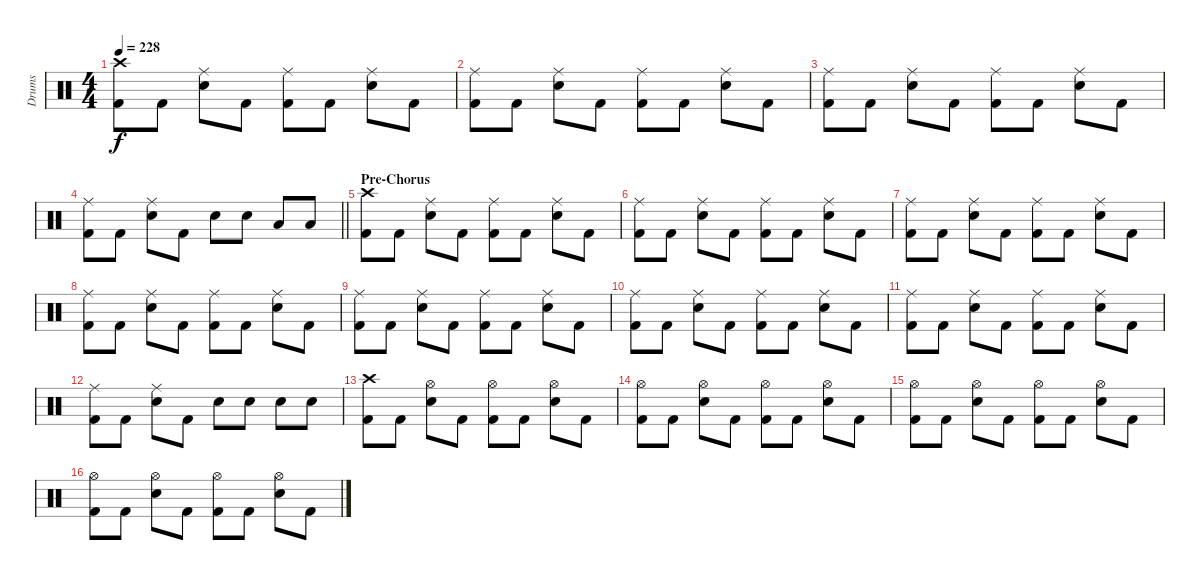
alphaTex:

\track ("Drums" "Drums") {instrument percussion}
\staff {score}
\articulation defaults
\ts (4 4)
\tempo 228
\clef neutral
\ks c
("Crash high (hit)" "Kick (hit) 2").8{dy f} "Kick (hit) 2".8 ("Ride (middle)" "Snare (hit) 2").8 "Kick (hit) 2".8 ("Ride (middle)" "Kick (hit) 2").8 "Kick (hit) 2".8 ("Ride (middle)" "Snare (hit) 2").8 "Kick (hit) 2".8 |
("Ride (middle)" "Kick (hit) 2").8 "Kick (hit) 2".8 ("Ride (middle)" "Snare (hit) 2").8 "Kick (hit) 2".8 ("Ride (middle)" "Kick (hit) 2").8 "Kick (hit) 2".8 ("Ride (middle)" "Snare (hit) 2").8 "Kick (hit) 2".8 |
("Ride (middle)" "Kick (hit) 2").8 "Kick (hit) 2".8 ("Ride (middle)" "Snare (hit) 2").8 "Kick (hit) 2".8 ("Ride (middle)" "Kick (hit) 2").8 "Kick (hit) 2".8 ("Ride (middle)" "Snare (hit) 2").8 "Kick (hit) 2".8 |
\barLineRight lightlight
("Ride (middle)" "Kick (hit) 2").8 "Kick (hit) 2".8 ("Ride (middle)" "Snare (hit) 2").8 "Kick (hit) 2".8 "Snare (hit) 2".8 "Snare (hit) 2".8 "Low Tom (hit)".8 "Low Tom (hit)".8 |
\section ("" "Pre-Chorus")
("Crash high (hit)" "Kick (hit) 2").8 "Kick (hit) 2".8 ("Ride (middle)" "Snare (hit) 2").8 "Kick (hit) 2".8 ("Ride (middle)" "Kick (hit) 2").8 "Kick (hit) 2".8 ("Ride (middle)" "Snare (hit) 2").8 "Kick (hit) 2".8 |
("Ride (middle)" "Kick (hit) 2").8 "Kick (hit) 2".8 ("Ride (middle)" "Snare (hit) 2").8 "Kick (hit) 2".8 ("Ride (middle)" "Kick (hit) 2").8 "Kick (hit) 2".8 ("Ride (middle)" "Snare (hit) 2").8 "Kick (hit) 2".8 |
("Ride (middle)" "Kick (hit) 2").8 "Kick (hit) 2".8 ("Ride (middle)" "Snare (hit) 2").8 "Kick (hit) 2".8 ("Ride (middle)" "Kick (hit) 2").8 "Kick (hit) 2".8 ("Ride (middle)" "Snare (hit) 2").8 "Kick (hit) 2".8 |
("Ride (middle)" "Kick (hit) 2").8 "Kick (hit) 2".8 ("Ride (middle)" "Snare (hit) 2").8 "Kick (hit) 2".8 ("Ride (middle)" "Kick (hit) 2").8 "Kick (hit) 2".8 ("Ride (middle)" "Snare (hit) 2").8 "Kick (hit) 2".8 |
("Ride (middle)" "Kick (hit) 2").8 "Kick (hit) 2".8 ("Ride (middle)" "Snare (hit) 2").8 "Kick (hit) 2".8 ("Ride (middle)" "Kick (hit) 2").8 "Kick (hit) 2".8 ("Ride (middle)" "Snare (hit) 2").8 "Kick (hit) 2".8 |
("Ride (middle)" "Kick (hit) 2").8 "Kick (hit) 2".8 ("Ride (middle)" "Snare (hit) 2").8 "Kick (hit) 2".8 ("Ride (middle)" "Kick (hit) 2").8 "Kick (hit) 2".8 ("Ride (middle)" "Snare (hit) 2").8 "Kick (hit) 2".8 |
("Ride (middle)" "Kick (hit) 2").8 "Kick (hit) 2".8 ("Ride (middle)" "Snare (hit) 2").8 "Kick (hit) 2".8 ("Ride (middle)" "Kick (hit) 2").8 "Kick (hit) 2".8 ("Ride (middle)" "Snare (hit) 2").8 "Kick (hit) 2".8 |
("Ride (middle)" "Kick (hit) 2").8 "Kick (hit) 2".8 ("Ride (middle)" "Snare (hit) 2").8 "Kick (hit) 2".8 "Snare (hit) 2".8 "Snare (hit) 2".8 "Snare (hit) 2".8 "Snare (hit) 2".8 |
("Crash high (hit)" "Kick (hit) 2").8 "Kick (hit) 2".8 ("Hi-Hat (open)" "Snare (hit) 2").8 "Kick (hit) 2".8 ("Hi-Hat (open)" "Kick (hit) 2").8 "Kick (hit) 2".8 ("Hi-Hat (open)" "Snare (hit) 2").8 "Kick (hit) 2".8 |
("Hi-Hat (open)" "Kick (hit) 2").8 "Kick (hit) 2".8 ("Hi-Hat (open)" "Snare (hit) 2").8 "Kick (hit) 2".8 ("Hi-Hat (open)" "Kick (hit) 2").8 "Kick (hit) 2".8 ("Hi-Hat (open)" "Snare (hit) 2").8 "Kick (hit) 2".8 |
("Hi-Hat (open)" "Kick (hit) 2").8 "Kick (hit) 2".8 ("Hi-Hat (open)" "Snare (hit) 2").8 "Kick (hit) 2".8 ("Hi-Hat (open)" "Kick (hit) 2").8 "Kick (hit) 2".8 ("Hi-Hat (open)" "Snare (hit) 2").8 "Kick (hit) 2".8 |
("Hi-Hat (open)" "Kick (hit) 2").8 "Kick (hit) 2".8 ("Hi-Hat (open)" "Snare (hit) 2").8 "Kick (hit) 2".8 ("Hi-Hat (open)" "Kick (hit) 2").8 "Kick (hit) 2".8 ("Hi-Hat (open)" "Snare (hit) 2").8 "Kick (hit) 2".8
